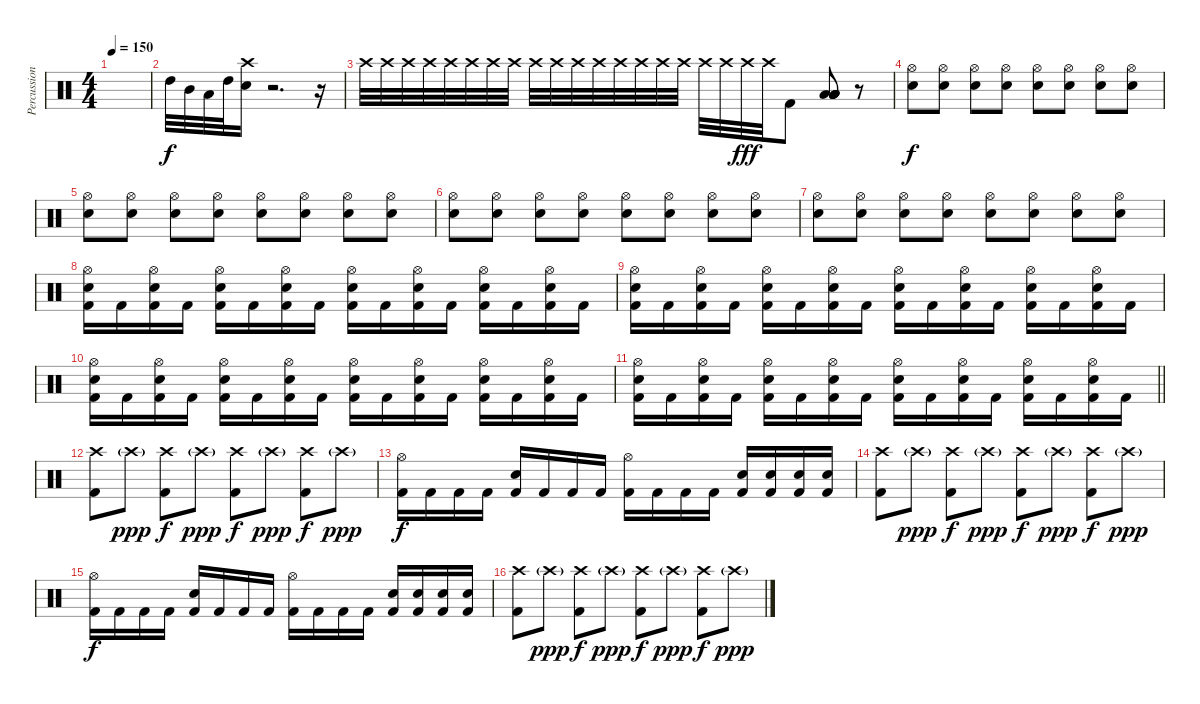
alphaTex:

\track ("Percussion" "Percussion") {instrument percussion}
\staff {score}
\articulation defaults
\ts (4 4)
\tempo 150
\clef neutral
\ks c
|
"High Tom (hit)".32 "Mid Tom (hit)".32 "Low Tom (hit)".32 "High Tom (hit)".32 ("Crash high (hit)" "Electric Snare (hit)").16 r.2{d} r.16{volume 0} |
"Crash high (hit)".32{volume 13} "Crash high (hit)".32 "Crash high (hit)".32 "Crash high (hit)".32 "Crash high (hit)".32 "Crash high (hit)".32 "Crash high (hit)".32 "Crash high (hit)".32 "Crash high (hit)".32 "Crash high (hit)".32 "Crash high (hit)".32 "Crash high (hit)".32 "Crash high (hit)".32 "Crash high (hit)".32 "Crash high (hit)".32 "Crash high (hit)".32 "Crash high (hit)".32 "Crash high (hit)".32 "Crash high (hit)".32{dy fff} "Crash high (hit)".32 "Kick (hit) 2".8 ("Low Tom (hit)" "Low Tom (hit)" "Low Tom (hit)" "Low Tom (hit)" "Low Tom (hit)").8 r.8 |
("Hi-Hat (open)" "Electric Snare (hit)").8{dy f} ("Hi-Hat (open)" "Electric Snare (hit)").8 ("Hi-Hat (open)" "Electric Snare (hit)").8 ("Hi-Hat (open)" "Electric Snare (hit)").8 ("Hi-Hat (open)" "Electric Snare (hit)").8 ("Hi-Hat (open)" "Electric Snare (hit)").8 ("Hi-Hat (open)" "Electric Snare (hit)").8 ("Hi-Hat (open)" "Electric Snare (hit)").8 |
("Hi-Hat (open)" "Electric Snare (hit)").8 ("Hi-Hat (open)" "Electric Snare (hit)").8 ("Hi-Hat (open)" "Electric Snare (hit)").8 ("Hi-Hat (open)" "Electric Snare (hit)").8 ("Hi-Hat (open)" "Electric Snare (hit)").8 ("Hi-Hat (open)" "Electric Snare (hit)").8 ("Hi-Hat (open)" "Electric Snare (hit)").8 ("Hi-Hat (open)" "Electric Snare (hit)").8 |
("Hi-Hat (open)" "Electric Snare (hit)").8 ("Hi-Hat (open)" "Electric Snare (hit)").8 ("Hi-Hat (open)" "Electric Snare (hit)").8 ("Hi-Hat (open)" "Electric Snare (hit)").8 ("Hi-Hat (open)" "Electric Snare (hit)").8 ("Hi-Hat (open)" "Electric Snare (hit)").8 ("Hi-Hat (open)" "Electric Snare (hit)").8 ("Hi-Hat (open)" "Electric Snare (hit)").8 |
("Hi-Hat (open)" "Electric Snare (hit)").8 ("Hi-Hat (open)" "Electric Snare (hit)").8 ("Hi-Hat (open)" "Electric Snare (hit)").8 ("Hi-Hat (open)" "Electric Snare (hit)").8 ("Hi-Hat (open)" "Electric Snare (hit)").8 ("Hi-Hat (open)" "Electric Snare (hit)").8 ("Hi-Hat (open)" "Electric Snare (hit)").8 ("Hi-Hat (open)" "Electric Snare (hit)").8 |
("Hi-Hat (open)" "Electric Snare (hit)" "Kick (hit) 2").16 "Kick (hit) 2".16 ("Hi-Hat (open)" "Electric Snare (hit)" "Kick (hit) 2").16 "Kick (hit) 2".16 ("Hi-Hat (open)" "Electric Snare (hit)" "Kick (hit) 2").16 "Kick (hit) 2".16 ("Hi-Hat (open)" "Electric Snare (hit)" "Kick (hit) 2").16 "Kick (hit) 2".16 ("Hi-Hat (open)" "Electric Snare (hit)" "Kick (hit) 2").16 "Kick (hit) 2".16 ("Hi-Hat (open)" "Electric Snare (hit)" "Kick (hit) 2").16 "Kick (hit) 2".16 ("Hi-Hat (open)" "Electric Snare (hit)" "Kick (hit) 2").16 "Kick (hit) 2".16 ("Hi-Hat (open)" "Electric Snare (hit)" "Kick (hit) 2").16 "Kick (hit) 2".16 |
("Hi-Hat (open)" "Electric Snare (hit)" "Kick (hit) 2").16 "Kick (hit) 2".16 ("Hi-Hat (open)" "Electric Snare (hit)" "Kick (hit) 2").16 "Kick (hit) 2".16 ("Hi-Hat (open)" "Electric Snare (hit)" "Kick (hit) 2").16 "Kick (hit) 2".16 ("Hi-Hat (open)" "Electric Snare (hit)" "Kick (hit) 2").16 "Kick (hit) 2".16 ("Hi-Hat (open)" "Electric Snare (hit)" "Kick (hit) 2").16 "Kick (hit) 2".16 ("Hi-Hat (open)" "Electric Snare (hit)" "Kick (hit) 2").16 "Kick (hit) 2".16 ("Hi-Hat (open)" "Electric Snare (hit)" "Kick (hit) 2").16 "Kick (hit) 2".16 ("Hi-Hat (open)" "Electric Snare (hit)" "Kick (hit) 2").16 "Kick (hit) 2".16 |
("Hi-Hat (open)" "Electric Snare (hit)" "Kick (hit) 2").16 "Kick (hit) 2".16 ("Hi-Hat (open)" "Electric Snare (hit)" "Kick (hit) 2").16 "Kick (hit) 2".16 ("Hi-Hat (open)" "Electric Snare (hit)" "Kick (hit) 2").16 "Kick (hit) 2".16 ("Hi-Hat (open)" "Electric Snare (hit)" "Kick (hit) 2").16 "Kick (hit) 2".16 ("Hi-Hat (open)" "Electric Snare (hit)" "Kick (hit) 2").16 "Kick (hit) 2".16 ("Hi-Hat (open)" "Electric Snare (hit)" "Kick (hit) 2").16 "Kick (hit) 2".16 ("Hi-Hat (open)" "Electric Snare (hit)" "Kick (hit) 2").16 "Kick (hit) 2".16 ("Hi-Hat (open)" "Electric Snare (hit)" "Kick (hit) 2").16 "Kick (hit) 2".16 |
\barLineRight lightlight
("Hi-Hat (open)" "Electric Snare (hit)" "Kick (hit) 2").16 "Kick (hit) 2".16 ("Hi-Hat (open)" "Electric Snare (hit)" "Kick (hit) 2").16 "Kick (hit) 2".16 ("Hi-Hat (open)" "Electric Snare (hit)" "Kick (hit) 2").16 "Kick (hit) 2".16 ("Hi-Hat (open)" "Electric Snare (hit)" "Kick (hit) 2").16 "Kick (hit) 2".16 ("Hi-Hat (open)" "Electric Snare (hit)" "Kick (hit) 2").16 "Kick (hit) 2".16 ("Hi-Hat (open)" "Electric Snare (hit)" "Kick (hit) 2").16 "Kick (hit) 2".16 ("Hi-Hat (open)" "Electric Snare (hit)" "Kick (hit) 2").16 "Kick (hit) 2".16 ("Hi-Hat (open)" "Electric Snare (hit)" "Kick (hit) 2").16 "Kick (hit) 2".16 |
("Crash high (hit)" "Kick (hit) 2").8 "Crash high (hit)"{g}.8{dy ppp} ("Crash high (hit)" "Kick (hit) 2").8{dy f} "Crash high (hit)"{g}.8{dy ppp} ("Crash high (hit)" "Kick (hit) 2").8{dy f} "Crash high (hit)"{g}.8{dy ppp} ("Crash high (hit)" "Kick (hit) 2").8{dy f} "Crash high (hit)"{g}.8{dy ppp} |
("Hi-Hat (open)" "Kick (hit) 2").16{dy f} "Kick (hit) 2".16 "Kick (hit) 2".16 "Kick (hit) 2".16 ("Electric Snare (hit)" "Kick (hit) 2").16 "Kick (hit) 2".16 "Kick (hit) 2".16 "Kick (hit) 2".16 ("Hi-Hat (open)" "Kick (hit) 2").16 "Kick (hit) 2".16 "Kick (hit) 2".16 "Kick (hit) 2".16 ("Electric Snare (hit)" "Kick (hit) 2").16 ("Electric Snare (hit)" "Kick (hit) 2").16 ("Electric Snare (hit)" "Kick (hit) 2").16 ("Electric Snare (hit)" "Kick (hit) 2").16 |
("Crash high (hit)" "Kick (hit) 2").8 "Crash high (hit)"{g}.8{dy ppp} ("Crash high (hit)" "Kick (hit) 2").8{dy f} "Crash high (hit)"{g}.8{dy ppp} ("Crash high (hit)" "Kick (hit) 2").8{dy f} "Crash high (hit)"{g}.8{dy ppp} ("Crash high (hit)" "Kick (hit) 2").8{dy f} "Crash high (hit)"{g}.8{dy ppp} |
("Hi-Hat (open)" "Kick (hit) 2").16{dy f} "Kick (hit) 2".16 "Kick (hit) 2".16 "Kick (hit) 2".16 ("Electric Snare (hit)" "Kick (hit) 2").16 "Kick (hit) 2".16 "Kick (hit) 2".16 "Kick (hit) 2".16 ("Hi-Hat (open)" "Kick (hit) 2").16 "Kick (hit) 2".16 "Kick (hit) 2".16 "Kick (hit) 2".16 ("Electric Snare (hit)" "Kick (hit) 2").16 ("Electric Snare (hit)" "Kick (hit) 2").16 ("Electric Snare (hit)" "Kick (hit) 2").16 ("Electric Snare (hit)" "Kick (hit) 2").16 |
("Crash high (hit)" "Kick (hit) 2").8 "Crash high (hit)"{g}.8{dy ppp} ("Crash high (hit)" "Kick (hit) 2").8{dy f} "Crash high (hit)"{g}.8{dy ppp} ("Crash high (hit)" "Kick (hit) 2").8{dy f} "Crash high (hit)"{g}.8{dy ppp} ("Crash high (hit)" "Kick (hit) 2").8{dy f} "Crash high (hit)"{g}.8{dy ppp}
